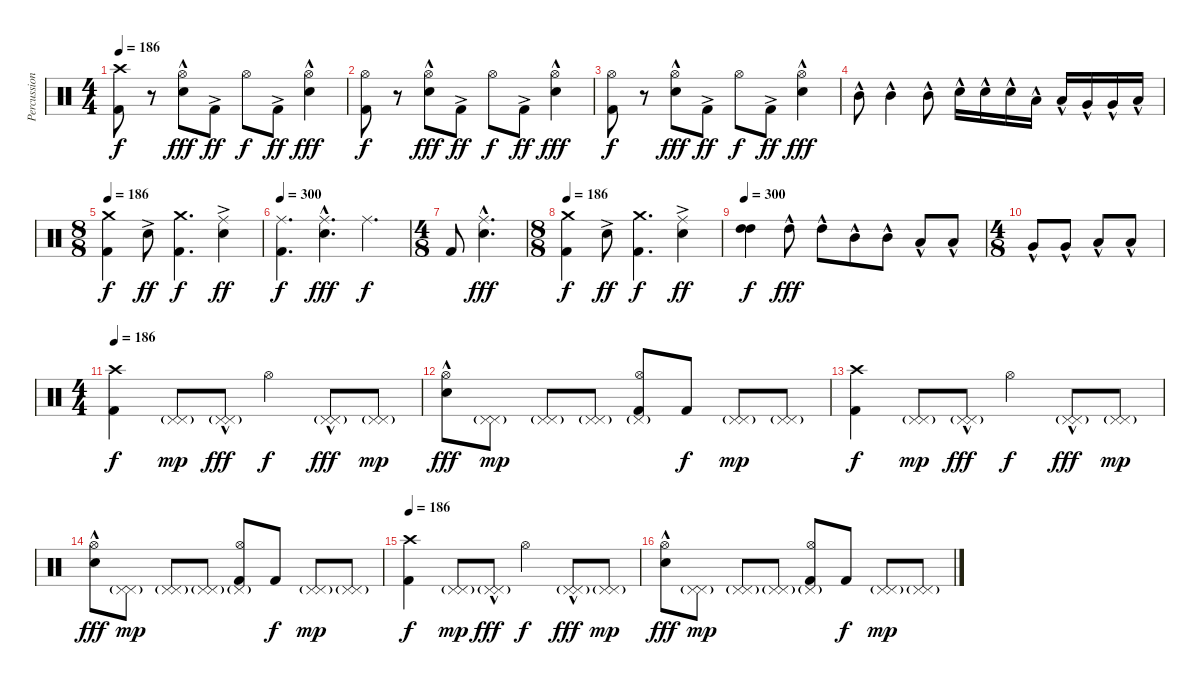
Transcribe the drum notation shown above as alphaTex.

\track ("Percussion" "Percussion") {instrument percussion}
\staff {score}
\articulation defaults
\ts (4 4)
\tempo 186
\clef neutral
\ks c
("Kick (hit) 2" "Crash high (hit)").8{dy f} r.8 ("Electric Snare (hit)"{hac} "Hi-Hat (open)").8{dy fff} "Kick (hit) 2"{ac}.8{dy ff} "Hi-Hat (open)".8{dy f} "Kick (hit) 2"{ac}.8{dy ff} ("Electric Snare (hit)"{hac} "Hi-Hat (open)").4{dy fff} |
("Kick (hit) 2" "Hi-Hat (open)").8{dy f} r.8 ("Electric Snare (hit)"{hac} "Hi-Hat (open)").8{dy fff} "Kick (hit) 2"{ac}.8{dy ff} "Hi-Hat (open)".8{dy f} "Kick (hit) 2"{ac}.8{dy ff} ("Electric Snare (hit)"{hac} "Hi-Hat (open)").4{dy fff} |
("Kick (hit) 2" "Hi-Hat (open)").8{dy f} r.8 ("Electric Snare (hit)"{hac} "Hi-Hat (open)").8{dy fff} "Kick (hit) 2"{ac}.8{dy ff} "Hi-Hat (open)".8{dy f} "Kick (hit) 2"{ac}.8{dy ff} ("Electric Snare (hit)"{hac} "Hi-Hat (open)").4{dy fff} |
"Mid Tom (hit)"{hac}.8 "Mid Tom (hit)"{hac}.4 "Mid Tom (hit)"{hac}.8 "Electric Snare (hit)"{hac}.16 "Electric Snare (hit)"{hac}.16 "Electric Snare (hit)"{hac}.16 "Low Tom (hit)"{hac}.16 "Low Tom (hit)"{hac}.16 "Very Low Tom (hit)"{hac}.16 "Very Low Tom (hit)"{hac}.16 "Low Floor Tom (hit)"{hac}.16 |
\ts (8 8)
\tempo 186
("Kick (hit) 2" "Crash medium (hit)").4{dy f} "Electric Snare (hit)"{ac}.8{dy ff} ("Kick (hit) 2" "Crash medium (hit)").4{d dy f} ("Electric Snare (hit)"{ac} "Ride (middle)").4{dy ff} |
\tempo 300
("Kick (hit) 2" "Ride (middle)").4{d dy f} ("Electric Snare (hit)"{hac} "Ride (middle)").4{d dy fff} "Ride (middle)".4{d dy f} |
\ts (4 8)
"Kick (hit) 2".8 ("Electric Snare (hit)"{hac} "Ride (middle)").4{d dy fff} |
\ts (8 8)
\tempo 186
("Kick (hit) 2" "Crash medium (hit)").4{dy f} "Electric Snare (hit)"{ac}.8{dy ff} ("Kick (hit) 2" "Crash medium (hit)").4{d dy f} ("Electric Snare (hit)"{ac} "Ride (middle)").4{dy ff} |
\tempo 300
("High Tom (hit)" "High Tom (hit)").4{dy f} "High Tom (hit)"{hac}.8{dy fff} "High Tom (hit)"{hac}.8 "Mid Tom (hit)"{hac}.8 "Mid Tom (hit)"{hac}.8 "Low Tom (hit)"{hac}.8 "Low Tom (hit)"{hac}.8 |
\ts (4 8)
"Very Low Tom (hit)"{hac}.8 "Very Low Tom (hit)"{hac}.8 "Low Floor Tom (hit)"{hac}.8 "Low Floor Tom (hit)"{hac}.8 |
\ts (4 4)
\tempo 186
("Crash high (hit)" "Kick (hit) 2").4{dy f} ("Pedal Hi-Hat (hit)"{g} "Pedal Hi-Hat (hit)").8{dy mp} ("Pedal Hi-Hat (hit)"{g} "Pedal Hi-Hat (hit)"{hac}).8{dy fff} "Hi-Hat (open)".4{dy f} ("Pedal Hi-Hat (hit)"{g} "Pedal Hi-Hat (hit)"{hac}).8{dy fff} ("Pedal Hi-Hat (hit)"{g} "Pedal Hi-Hat (hit)").8{dy mp} |
("Hi-Hat (open)" "Electric Snare (hit)"{hac}).8{dy fff} ("Pedal Hi-Hat (hit)"{g} "Pedal Hi-Hat (hit)").8{dy mp} ("Pedal Hi-Hat (hit)"{g} "Pedal Hi-Hat (hit)").8 ("Pedal Hi-Hat (hit)"{g} "Pedal Hi-Hat (hit)").8 ("Pedal Hi-Hat (hit)"{g} "Hi-Hat (open)" "Kick (hit) 2").8 "Kick (hit) 2".8{dy f} ("Pedal Hi-Hat (hit)"{g} "Pedal Hi-Hat (hit)").8{dy mp} ("Pedal Hi-Hat (hit)"{g} "Pedal Hi-Hat (hit)").8 |
("Crash high (hit)" "Kick (hit) 2").4{dy f} ("Pedal Hi-Hat (hit)"{g} "Pedal Hi-Hat (hit)").8{dy mp} ("Pedal Hi-Hat (hit)"{g} "Pedal Hi-Hat (hit)"{hac}).8{dy fff} "Hi-Hat (open)".4{dy f} ("Pedal Hi-Hat (hit)"{g} "Pedal Hi-Hat (hit)"{hac}).8{dy fff} ("Pedal Hi-Hat (hit)"{g} "Pedal Hi-Hat (hit)").8{dy mp} |
("Hi-Hat (open)" "Electric Snare (hit)"{hac}).8{dy fff} ("Pedal Hi-Hat (hit)"{g} "Pedal Hi-Hat (hit)").8{dy mp} ("Pedal Hi-Hat (hit)"{g} "Pedal Hi-Hat (hit)").8 ("Pedal Hi-Hat (hit)"{g} "Pedal Hi-Hat (hit)").8 ("Pedal Hi-Hat (hit)"{g} "Hi-Hat (open)" "Kick (hit) 2").8 "Kick (hit) 2".8{dy f} ("Pedal Hi-Hat (hit)"{g} "Pedal Hi-Hat (hit)").8{dy mp} ("Pedal Hi-Hat (hit)"{g} "Pedal Hi-Hat (hit)").8 |
\tempo 186
("Crash high (hit)" "Kick (hit) 2").4{dy f} ("Pedal Hi-Hat (hit)"{g} "Pedal Hi-Hat (hit)").8{dy mp} ("Pedal Hi-Hat (hit)"{g} "Pedal Hi-Hat (hit)"{hac}).8{dy fff} "Hi-Hat (open)".4{dy f} ("Pedal Hi-Hat (hit)"{g} "Pedal Hi-Hat (hit)"{hac}).8{dy fff} ("Pedal Hi-Hat (hit)"{g} "Pedal Hi-Hat (hit)").8{dy mp} |
("Hi-Hat (open)" "Electric Snare (hit)"{hac}).8{dy fff} ("Pedal Hi-Hat (hit)"{g} "Pedal Hi-Hat (hit)").8{dy mp} ("Pedal Hi-Hat (hit)"{g} "Pedal Hi-Hat (hit)").8 ("Pedal Hi-Hat (hit)"{g} "Pedal Hi-Hat (hit)").8 ("Pedal Hi-Hat (hit)"{g} "Hi-Hat (open)" "Kick (hit) 2").8 "Kick (hit) 2".8{dy f} ("Pedal Hi-Hat (hit)"{g} "Pedal Hi-Hat (hit)").8{dy mp} ("Pedal Hi-Hat (hit)"{g} "Pedal Hi-Hat (hit)").8
